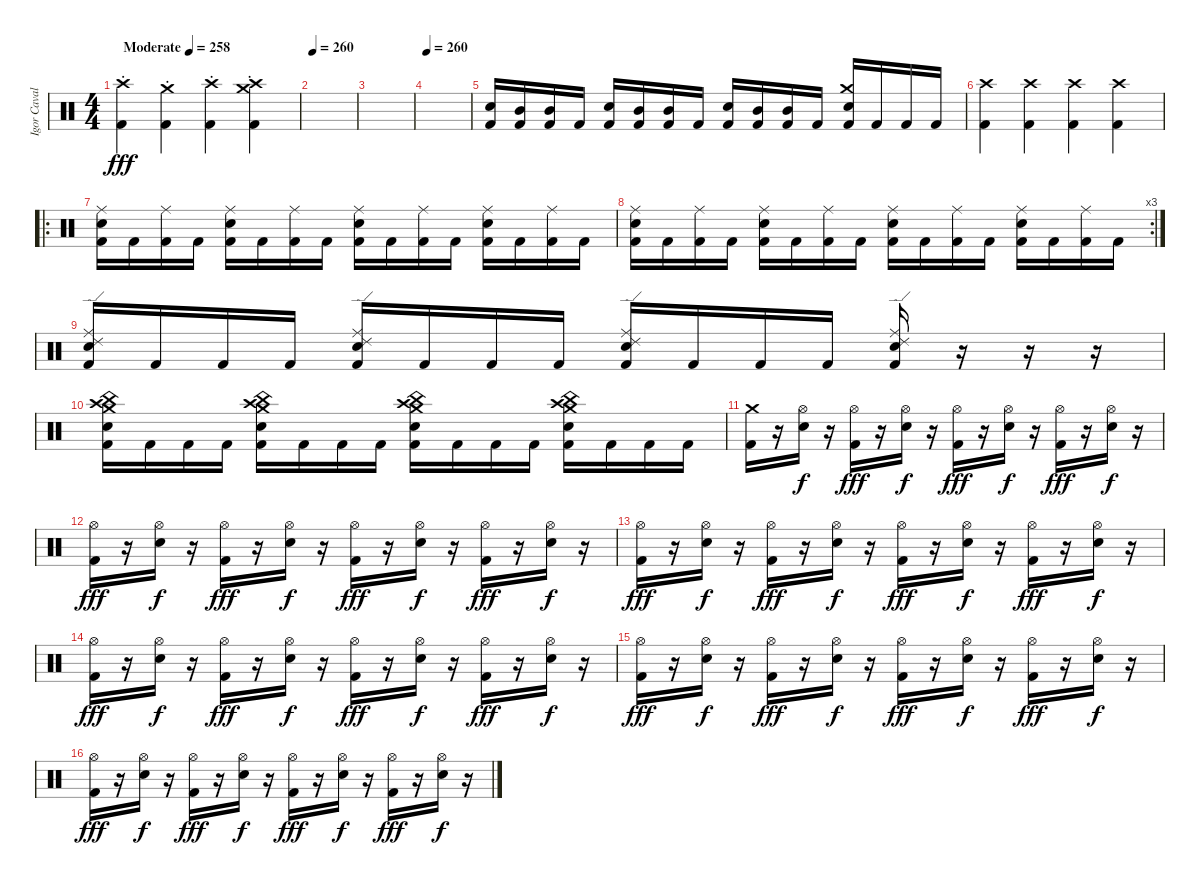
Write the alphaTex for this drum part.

\track ("Igor Cavalera" "Igor Caval") {instrument percussion}
\staff {score}
\articulation defaults
\ts (4 4)
\tempo (258 "Moderate")
\clef neutral
\ks c
("Crash high (hit)"{st} "Kick (hit) 2"{st}).4{dy fff} ("Crash medium (hit)"{st} "Kick (hit) 2"{st}).4 ("Crash high (hit)"{st} "Kick (hit) 2"{st}).4 ("Crash medium (hit)"{st} "Crash high (hit)"{st} "Kick (hit) 2"{st}).4 |
\tempo 260
|
|
\tempo 260
|
("Electric Snare (hit)" "Kick (hit) 2").16 ("Mid Tom (hit)" "Kick (hit) 2").16 ("Mid Tom (hit)" "Kick (hit) 2").16 "Kick (hit) 2".16 ("Electric Snare (hit)" "Kick (hit) 2").16 ("Mid Tom (hit)" "Kick (hit) 2").16 ("Mid Tom (hit)" "Kick (hit) 2").16 "Kick (hit) 2".16 ("Electric Snare (hit)" "Kick (hit) 2").16 ("Mid Tom (hit)" "Kick (hit) 2").16 ("Mid Tom (hit)" "Kick (hit) 2").16 "Kick (hit) 2".16 ("Crash medium (hit)" "Electric Snare (hit)" "Kick (hit) 2").16 "Kick (hit) 2".16 "Kick (hit) 2".16 "Kick (hit) 2".16 |
("Crash high (hit)" "Kick (hit) 2").4 ("Crash high (hit)" "Kick (hit) 2").4 ("Crash high (hit)" "Kick (hit) 2").4 ("Crash high (hit)" "Kick (hit) 2").4 |
\ro
("Electric Snare (hit)" "Ride (middle)" "Kick (hit) 2").16 "Kick (hit) 2".16 ("Ride (middle)" "Kick (hit) 2").16 "Kick (hit) 2".16 ("Electric Snare (hit)" "Ride (middle)" "Kick (hit) 2").16 "Kick (hit) 2".16 ("Ride (middle)" "Kick (hit) 2").16 "Kick (hit) 2".16 ("Electric Snare (hit)" "Ride (middle)" "Kick (hit) 2").16 "Kick (hit) 2".16 ("Ride (middle)" "Kick (hit) 2").16 "Kick (hit) 2".16 ("Electric Snare (hit)" "Ride (middle)" "Kick (hit) 2").16 "Kick (hit) 2".16 ("Ride (middle)" "Kick (hit) 2").16 "Kick (hit) 2".16 |
\rc 3
("Electric Snare (hit)" "Ride (middle)" "Kick (hit) 2").16 "Kick (hit) 2".16 ("Ride (middle)" "Kick (hit) 2").16 "Kick (hit) 2".16 ("Electric Snare (hit)" "Ride (middle)" "Kick (hit) 2").16 "Kick (hit) 2".16 ("Ride (middle)" "Kick (hit) 2").16 "Kick (hit) 2".16 ("Electric Snare (hit)" "Ride (middle)" "Kick (hit) 2").16 "Kick (hit) 2".16 ("Ride (middle)" "Kick (hit) 2").16 "Kick (hit) 2".16 ("Electric Snare (hit)" "Ride (middle)" "Kick (hit) 2").16 "Kick (hit) 2".16 ("Ride (middle)" "Kick (hit) 2").16 "Kick (hit) 2".16 |
("Ride (edge) 2" "Electric Snare (hit)" "Ride (middle)" "Kick (hit) 2").16 "Kick (hit) 2".16 "Kick (hit) 2".16 "Kick (hit) 2".16 ("Ride (edge) 2" "Electric Snare (hit)" "Ride (middle)" "Kick (hit) 2").16 "Kick (hit) 2".16 "Kick (hit) 2".16 "Kick (hit) 2".16 ("Ride (edge) 2" "Electric Snare (hit)" "Ride (middle)" "Kick (hit) 2").16 "Kick (hit) 2".16 "Kick (hit) 2".16 "Kick (hit) 2".16 ("Ride (edge) 2" "Electric Snare (hit)" "Ride (middle)" "Kick (hit) 2").16 r.16 r.16 r.16 |
("Crash medium (hit)" "Crash high (hit)" "China (hit)" "Electric Snare (hit)" "Kick (hit) 2").16 "Kick (hit) 2".16 "Kick (hit) 2".16 "Kick (hit) 2".16 ("Crash medium (hit)" "Crash high (hit)" "China (hit)" "Electric Snare (hit)" "Kick (hit) 2").16 "Kick (hit) 2".16 "Kick (hit) 2".16 "Kick (hit) 2".16 ("Crash medium (hit)" "Crash high (hit)" "China (hit)" "Electric Snare (hit)" "Kick (hit) 2").16 "Kick (hit) 2".16 "Kick (hit) 2".16 "Kick (hit) 2".16 ("Crash medium (hit)" "Crash high (hit)" "China (hit)" "Electric Snare (hit)" "Kick (hit) 2").16 "Kick (hit) 2".16 "Kick (hit) 2".16 "Kick (hit) 2".16 |
("Crash medium (hit)" "Kick (hit) 2").16 r.16 ("Electric Snare (hit)" "Hi-Hat (open)").16{dy f} r.16 ("Hi-Hat (open)" "Kick (hit) 2").16{dy fff} r.16 ("Electric Snare (hit)" "Hi-Hat (open)").16{dy f} r.16 ("Hi-Hat (open)" "Kick (hit) 2").16{dy fff} r.16 ("Electric Snare (hit)" "Hi-Hat (open)").16{dy f} r.16 ("Hi-Hat (open)" "Kick (hit) 2").16{dy fff} r.16 ("Electric Snare (hit)" "Hi-Hat (open)").16{dy f} r.16 |
("Hi-Hat (open)" "Kick (hit) 2").16{dy fff} r.16 ("Electric Snare (hit)" "Hi-Hat (open)").16{dy f} r.16 ("Hi-Hat (open)" "Kick (hit) 2").16{dy fff} r.16 ("Electric Snare (hit)" "Hi-Hat (open)").16{dy f} r.16 ("Hi-Hat (open)" "Kick (hit) 2").16{dy fff} r.16 ("Electric Snare (hit)" "Hi-Hat (open)").16{dy f} r.16 ("Hi-Hat (open)" "Kick (hit) 2").16{dy fff} r.16 ("Electric Snare (hit)" "Hi-Hat (open)").16{dy f} r.16 |
("Hi-Hat (open)" "Kick (hit) 2").16{dy fff} r.16 ("Electric Snare (hit)" "Hi-Hat (open)").16{dy f} r.16 ("Hi-Hat (open)" "Kick (hit) 2").16{dy fff} r.16 ("Electric Snare (hit)" "Hi-Hat (open)").16{dy f} r.16 ("Hi-Hat (open)" "Kick (hit) 2").16{dy fff} r.16 ("Electric Snare (hit)" "Hi-Hat (open)").16{dy f} r.16 ("Hi-Hat (open)" "Kick (hit) 2").16{dy fff} r.16 ("Electric Snare (hit)" "Hi-Hat (open)").16{dy f} r.16 |
("Hi-Hat (open)" "Kick (hit) 2").16{dy fff} r.16 ("Electric Snare (hit)" "Hi-Hat (open)").16{dy f} r.16 ("Hi-Hat (open)" "Kick (hit) 2").16{dy fff} r.16 ("Electric Snare (hit)" "Hi-Hat (open)").16{dy f} r.16 ("Hi-Hat (open)" "Kick (hit) 2").16{dy fff} r.16 ("Electric Snare (hit)" "Hi-Hat (open)").16{dy f} r.16 ("Hi-Hat (open)" "Kick (hit) 2").16{dy fff} r.16 ("Electric Snare (hit)" "Hi-Hat (open)").16{dy f} r.16 |
("Hi-Hat (open)" "Kick (hit) 2").16{dy fff} r.16 ("Electric Snare (hit)" "Hi-Hat (open)").16{dy f} r.16 ("Hi-Hat (open)" "Kick (hit) 2").16{dy fff} r.16 ("Electric Snare (hit)" "Hi-Hat (open)").16{dy f} r.16 ("Hi-Hat (open)" "Kick (hit) 2").16{dy fff} r.16 ("Electric Snare (hit)" "Hi-Hat (open)").16{dy f} r.16 ("Hi-Hat (open)" "Kick (hit) 2").16{dy fff} r.16 ("Electric Snare (hit)" "Hi-Hat (open)").16{dy f} r.16 |
("Hi-Hat (open)" "Kick (hit) 2").16{dy fff} r.16 ("Electric Snare (hit)" "Hi-Hat (open)").16{dy f} r.16 ("Hi-Hat (open)" "Kick (hit) 2").16{dy fff} r.16 ("Electric Snare (hit)" "Hi-Hat (open)").16{dy f} r.16 ("Hi-Hat (open)" "Kick (hit) 2").16{dy fff} r.16 ("Electric Snare (hit)" "Hi-Hat (open)").16{dy f} r.16 ("Hi-Hat (open)" "Kick (hit) 2").16{dy fff} r.16 ("Electric Snare (hit)" "Hi-Hat (open)").16{dy f} r.16
